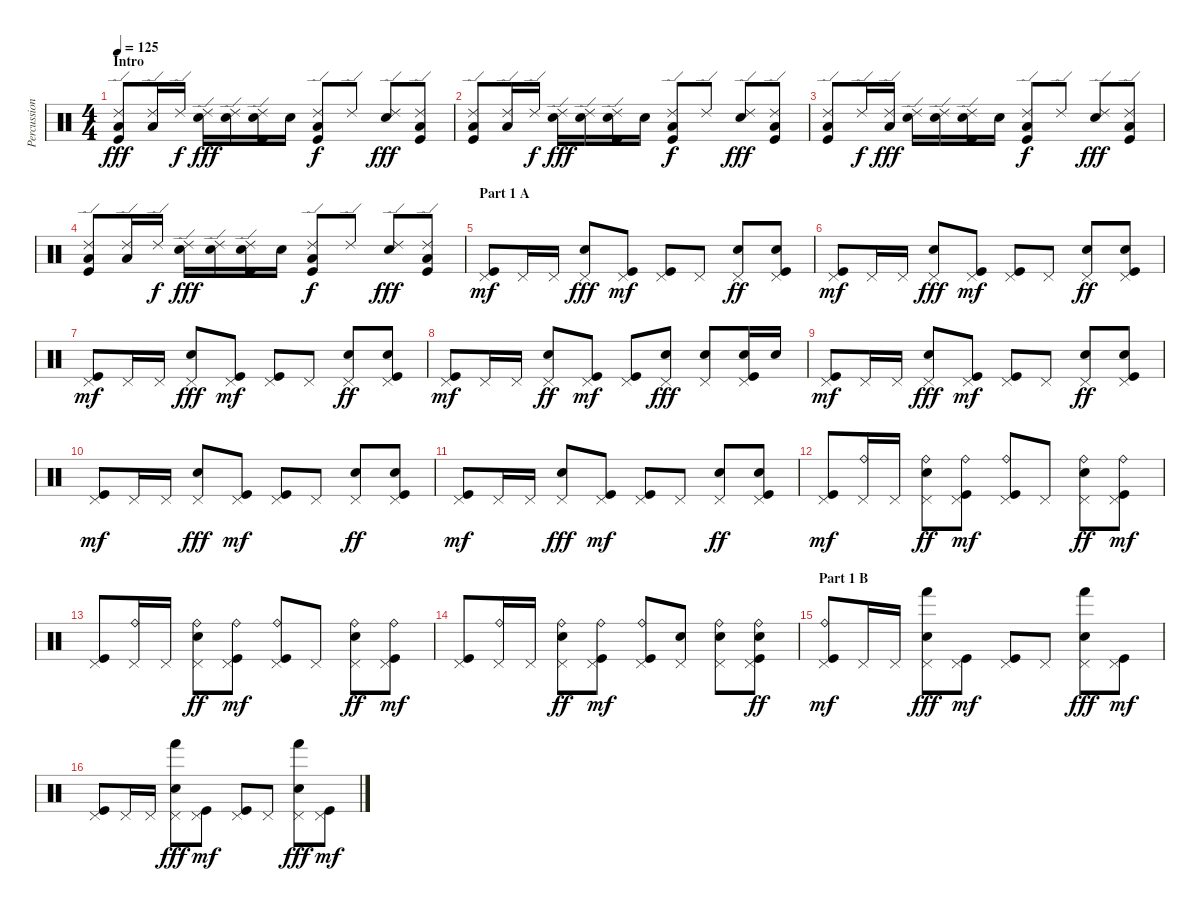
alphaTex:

\track ("Percussion" "Percussion") {instrument percussion}
\staff {score}
\articulation defaults
\ts (4 4)
\section ("" "Intro")
\tempo 125
\clef neutral
\ks c
("Ride (edge) 2" "Low Tom (hit)" "Kick (hit)").8{dy fff} ("Ride (edge) 2" "Low Tom (hit)").16 "Ride (edge) 2".16{dy f} ("Ride (edge) 2" "Electric Snare (hit)").16{dy fff} ("Ride (edge) 2" "Electric Snare (hit)").16 ("Ride (edge) 2" "Electric Snare (hit)" "Kick (hit)").16 "Electric Snare (hit)".16 ("Ride (edge) 2" "Low Tom (hit)" "Kick (hit)").8{dy f} "Ride (edge) 2".8 ("Ride (edge) 2" "Electric Snare (hit)").8{dy fff} ("Ride (edge) 2" "Low Tom (hit)" "Kick (hit)").8 |
("Ride (edge) 2" "Low Tom (hit)" "Kick (hit)").8 ("Ride (edge) 2" "Low Tom (hit)").16 "Ride (edge) 2".16{dy f} ("Ride (edge) 2" "Electric Snare (hit)").16{dy fff} ("Ride (edge) 2" "Electric Snare (hit)").16 ("Ride (edge) 2" "Electric Snare (hit)" "Kick (hit)").16 "Electric Snare (hit)".16 ("Ride (edge) 2" "Low Tom (hit)" "Kick (hit)").8{dy f} "Ride (edge) 2".8 ("Ride (edge) 2" "Electric Snare (hit)").8{dy fff} ("Ride (edge) 2" "Low Tom (hit)" "Kick (hit)").8 |
("Ride (edge) 2" "Low Tom (hit)" "Kick (hit)").8 "Ride (edge) 2".16{dy f} ("Ride (edge) 2" "Low Tom (hit)").16{dy fff} ("Ride (edge) 2" "Electric Snare (hit)").16 ("Ride (edge) 2" "Electric Snare (hit)").16 ("Ride (edge) 2" "Electric Snare (hit)" "Kick (hit)").16 "Electric Snare (hit)".16 ("Ride (edge) 2" "Low Tom (hit)" "Kick (hit)").8{dy f} "Ride (edge) 2".8 ("Ride (edge) 2" "Electric Snare (hit)").8{dy fff} ("Ride (edge) 2" "Low Tom (hit)" "Kick (hit)").8 |
("Ride (edge) 2" "Low Tom (hit)" "Kick (hit)").8 ("Ride (edge) 2" "Low Tom (hit)").16 "Ride (edge) 2".16{dy f} ("Ride (edge) 2" "Electric Snare (hit)").16{dy fff} ("Ride (edge) 2" "Electric Snare (hit)").16 ("Ride (edge) 2" "Electric Snare (hit)" "Kick (hit)").16 "Electric Snare (hit)".16 ("Ride (edge) 2" "Low Tom (hit)" "Kick (hit)").8{dy f} "Ride (edge) 2".8 ("Ride (edge) 2" "Electric Snare (hit)").8{dy fff} ("Ride (edge) 2" "Low Tom (hit)" "Kick (hit)").8 |
\section ("" "Part 1 A")
("Pedal Hi-Hat (hit)" "Kick (hit)").8{dy mf} "Pedal Hi-Hat (hit)".16 "Pedal Hi-Hat (hit)".16 ("Pedal Hi-Hat (hit)" "Electric Snare (hit)").8{dy fff} ("Pedal Hi-Hat (hit)" "Kick (hit)").8{dy mf} ("Pedal Hi-Hat (hit)" "Kick (hit)").8 "Pedal Hi-Hat (hit)".8 ("Pedal Hi-Hat (hit)" "Electric Snare (hit)").8{dy ff} ("Pedal Hi-Hat (hit)" "Electric Snare (hit)" "Kick (hit)").8 |
("Pedal Hi-Hat (hit)" "Kick (hit)").8{dy mf} "Pedal Hi-Hat (hit)".16 "Pedal Hi-Hat (hit)".16 ("Pedal Hi-Hat (hit)" "Electric Snare (hit)").8{dy fff} ("Pedal Hi-Hat (hit)" "Kick (hit)").8{dy mf} ("Pedal Hi-Hat (hit)" "Kick (hit)").8 "Pedal Hi-Hat (hit)".8 ("Pedal Hi-Hat (hit)" "Electric Snare (hit)").8{dy ff} ("Pedal Hi-Hat (hit)" "Electric Snare (hit)" "Kick (hit)").8 |
("Pedal Hi-Hat (hit)" "Kick (hit)").8{dy mf} "Pedal Hi-Hat (hit)".16 "Pedal Hi-Hat (hit)".16 ("Pedal Hi-Hat (hit)" "Electric Snare (hit)").8{dy fff} ("Pedal Hi-Hat (hit)" "Kick (hit)").8{dy mf} ("Pedal Hi-Hat (hit)" "Kick (hit)").8 "Pedal Hi-Hat (hit)".8 ("Pedal Hi-Hat (hit)" "Electric Snare (hit)").8{dy ff} ("Pedal Hi-Hat (hit)" "Electric Snare (hit)" "Kick (hit)").8 |
("Pedal Hi-Hat (hit)" "Kick (hit)").8{dy mf} "Pedal Hi-Hat (hit)".16 "Pedal Hi-Hat (hit)".16 ("Pedal Hi-Hat (hit)" "Electric Snare (hit)").8{dy ff} ("Pedal Hi-Hat (hit)" "Kick (hit)").8{dy mf} ("Pedal Hi-Hat (hit)" "Kick (hit)").8 ("Pedal Hi-Hat (hit)" "Electric Snare (hit)").8{dy fff} ("Pedal Hi-Hat (hit)" "Electric Snare (hit)").8 ("Pedal Hi-Hat (hit)" "Electric Snare (hit)" "Kick (hit)").16 "Electric Snare (hit)".16 |
("Pedal Hi-Hat (hit)" "Kick (hit)").8{dy mf} "Pedal Hi-Hat (hit)".16 "Pedal Hi-Hat (hit)".16 ("Pedal Hi-Hat (hit)" "Electric Snare (hit)").8{dy fff} ("Pedal Hi-Hat (hit)" "Kick (hit)").8{dy mf} ("Pedal Hi-Hat (hit)" "Kick (hit)").8 "Pedal Hi-Hat (hit)".8 ("Pedal Hi-Hat (hit)" "Electric Snare (hit)").8{dy ff} ("Pedal Hi-Hat (hit)" "Electric Snare (hit)" "Kick (hit)").8 |
("Pedal Hi-Hat (hit)" "Kick (hit)").8{dy mf} "Pedal Hi-Hat (hit)".16 "Pedal Hi-Hat (hit)".16 ("Pedal Hi-Hat (hit)" "Electric Snare (hit)").8{dy fff} ("Pedal Hi-Hat (hit)" "Kick (hit)").8{dy mf} ("Pedal Hi-Hat (hit)" "Kick (hit)").8 "Pedal Hi-Hat (hit)".8 ("Pedal Hi-Hat (hit)" "Electric Snare (hit)").8{dy ff} ("Pedal Hi-Hat (hit)" "Electric Snare (hit)" "Kick (hit)").8 |
("Pedal Hi-Hat (hit)" "Kick (hit)").8{dy mf} "Pedal Hi-Hat (hit)".16 "Pedal Hi-Hat (hit)".16 ("Pedal Hi-Hat (hit)" "Electric Snare (hit)").8{dy fff} ("Pedal Hi-Hat (hit)" "Kick (hit)").8{dy mf} ("Pedal Hi-Hat (hit)" "Kick (hit)").8 "Pedal Hi-Hat (hit)".8 ("Pedal Hi-Hat (hit)" "Electric Snare (hit)").8{dy ff} ("Pedal Hi-Hat (hit)" "Electric Snare (hit)" "Kick (hit)").8 |
("Pedal Hi-Hat (hit)" "Kick (hit)").8{dy mf} ("Ride (bell)" "Pedal Hi-Hat (hit)").16 "Pedal Hi-Hat (hit)".16 ("Ride (bell)" "Pedal Hi-Hat (hit)" "Electric Snare (hit)").8{dy ff} ("Ride (bell)" "Pedal Hi-Hat (hit)" "Kick (hit)").8{dy mf} ("Ride (bell)" "Pedal Hi-Hat (hit)" "Kick (hit)").8 "Pedal Hi-Hat (hit)".8 ("Ride (bell)" "Pedal Hi-Hat (hit)" "Electric Snare (hit)").8{dy ff} ("Ride (bell)" "Pedal Hi-Hat (hit)" "Kick (hit)").8{dy mf} |
("Pedal Hi-Hat (hit)" "Kick (hit)").8 ("Ride (bell)" "Pedal Hi-Hat (hit)").16 "Pedal Hi-Hat (hit)".16 ("Ride (bell)" "Pedal Hi-Hat (hit)" "Electric Snare (hit)").8{dy ff} ("Ride (bell)" "Pedal Hi-Hat (hit)" "Kick (hit)").8{dy mf} ("Ride (bell)" "Pedal Hi-Hat (hit)" "Kick (hit)").8 "Pedal Hi-Hat (hit)".8 ("Ride (bell)" "Pedal Hi-Hat (hit)" "Electric Snare (hit)").8{dy ff} ("Ride (bell)" "Pedal Hi-Hat (hit)" "Kick (hit)").8{dy mf} |
("Pedal Hi-Hat (hit)" "Kick (hit)").8 ("Ride (bell)" "Pedal Hi-Hat (hit)").16 "Pedal Hi-Hat (hit)".16 ("Ride (bell)" "Pedal Hi-Hat (hit)" "Electric Snare (hit)").8{dy ff} ("Ride (bell)" "Pedal Hi-Hat (hit)" "Kick (hit)").8{dy mf} ("Ride (bell)" "Pedal Hi-Hat (hit)" "Kick (hit)").8 ("Pedal Hi-Hat (hit)" "Electric Snare (hit)").8 ("Ride (bell)" "Pedal Hi-Hat (hit)" "Electric Snare (hit)").8 ("Ride (bell)" "Pedal Hi-Hat (hit)" "Electric Snare (hit)" "Kick (hit)").8{dy ff} |
\section ("" "Part 1 B")
("Ride (bell)" "Pedal Hi-Hat (hit)" "Kick (hit)").8{dy mf} "Pedal Hi-Hat (hit)".16 "Pedal Hi-Hat (hit)".16 ("Pedal Hi-Hat (hit)" "Hand (hit)" "Electric Snare (hit)").8{dy fff} ("Pedal Hi-Hat (hit)" "Kick (hit)").8{dy mf} ("Pedal Hi-Hat (hit)" "Kick (hit)").8 "Pedal Hi-Hat (hit)".8 ("Pedal Hi-Hat (hit)" "Hand (hit)" "Electric Snare (hit)").8{dy fff} ("Pedal Hi-Hat (hit)" "Kick (hit)").8{dy mf} |
("Pedal Hi-Hat (hit)" "Kick (hit)").8 "Pedal Hi-Hat (hit)".16 "Pedal Hi-Hat (hit)".16 ("Pedal Hi-Hat (hit)" "Hand (hit)" "Electric Snare (hit)").8{dy fff} ("Pedal Hi-Hat (hit)" "Kick (hit)").8{dy mf} ("Pedal Hi-Hat (hit)" "Kick (hit)").8 "Pedal Hi-Hat (hit)".8 ("Pedal Hi-Hat (hit)" "Hand (hit)" "Electric Snare (hit)").8{dy fff} ("Pedal Hi-Hat (hit)" "Kick (hit)").8{dy mf}
